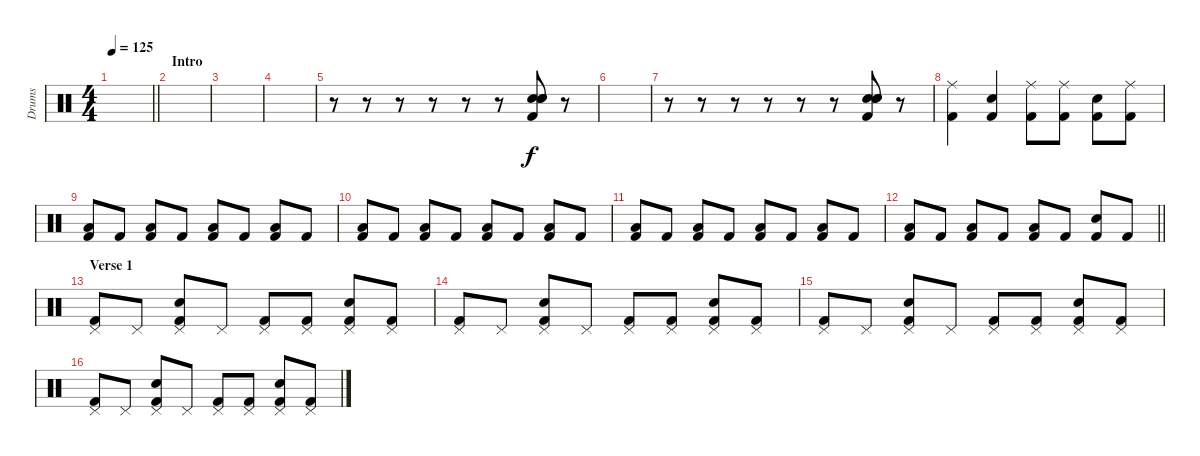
\track ("Drums" "Drums") {instrument percussion}
\staff {score}
\articulation defaults
\ts (4 4)
\tempo 125
\clef neutral
\barLineRight lightlight
\ks c
|
\section ("" "Intro")
|
|
|
r.8 r.8 r.8 r.8 r.8 r.8 ("Kick (hit) 2" "Electric Snare (hit)" "Electric Snare (hit)" "Snare (hit) 2").8 r.8 |
|
r.8 r.8 r.8 r.8 r.8 r.8 ("Kick (hit) 2" "Electric Snare (hit)" "Electric Snare (hit)" "Snare (hit) 2").8 r.8 |
("Ride (middle)" "Kick (hit) 2").4 ("Snare (hit) 2" "Kick (hit) 2").4 ("Ride (middle)" "Kick (hit) 2").8 ("Ride (middle)" "Kick (hit) 2").8 ("Snare (hit) 2" "Kick (hit) 2").8 ("Ride (middle)" "Kick (hit) 2").8 |
("Low Tom (hit)" "Kick (hit) 2").8 "Kick (hit) 2".8 ("Low Tom (hit)" "Kick (hit) 2").8 "Kick (hit) 2".8 ("Low Tom (hit)" "Kick (hit) 2").8 "Kick (hit) 2".8 ("Low Tom (hit)" "Kick (hit) 2").8 "Kick (hit) 2".8 |
("Low Tom (hit)" "Kick (hit) 2").8 "Kick (hit) 2".8 ("Low Tom (hit)" "Kick (hit) 2").8 "Kick (hit) 2".8 ("Low Tom (hit)" "Kick (hit) 2").8 "Kick (hit) 2".8 ("Low Tom (hit)" "Kick (hit) 2").8 "Kick (hit) 2".8 |
("Low Tom (hit)" "Kick (hit) 2").8 "Kick (hit) 2".8 ("Low Tom (hit)" "Kick (hit) 2").8 "Kick (hit) 2".8 ("Low Tom (hit)" "Kick (hit) 2").8 "Kick (hit) 2".8 ("Low Tom (hit)" "Kick (hit) 2").8 "Kick (hit) 2".8 |
\barLineRight lightlight
("Low Tom (hit)" "Kick (hit) 2").8 "Kick (hit) 2".8 ("Low Tom (hit)" "Kick (hit) 2").8 "Kick (hit) 2".8 ("Low Tom (hit)" "Kick (hit) 2").8 "Kick (hit) 2".8 ("Snare (hit) 2" "Kick (hit) 2").8 "Kick (hit) 2".8 |
\section ("" "Verse 1")
("Pedal Hi-Hat (hit)" "Kick (hit) 2").8 "Pedal Hi-Hat (hit)".8 ("Pedal Hi-Hat (hit)" "Snare (hit) 2" "Kick (hit) 2").8 "Pedal Hi-Hat (hit)".8 ("Pedal Hi-Hat (hit)" "Kick (hit) 2").8 ("Pedal Hi-Hat (hit)" "Kick (hit) 2").8 ("Pedal Hi-Hat (hit)" "Snare (hit) 2" "Kick (hit) 2").8 ("Pedal Hi-Hat (hit)" "Kick (hit) 2").8 |
("Pedal Hi-Hat (hit)" "Kick (hit) 2").8 "Pedal Hi-Hat (hit)".8 ("Pedal Hi-Hat (hit)" "Snare (hit) 2" "Kick (hit) 2").8 "Pedal Hi-Hat (hit)".8 ("Pedal Hi-Hat (hit)" "Kick (hit) 2").8 ("Pedal Hi-Hat (hit)" "Kick (hit) 2").8 ("Pedal Hi-Hat (hit)" "Snare (hit) 2" "Kick (hit) 2").8 ("Pedal Hi-Hat (hit)" "Kick (hit) 2").8 |
("Pedal Hi-Hat (hit)" "Kick (hit) 2").8 "Pedal Hi-Hat (hit)".8 ("Pedal Hi-Hat (hit)" "Snare (hit) 2" "Kick (hit) 2").8 "Pedal Hi-Hat (hit)".8 ("Pedal Hi-Hat (hit)" "Kick (hit) 2").8 ("Pedal Hi-Hat (hit)" "Kick (hit) 2").8 ("Pedal Hi-Hat (hit)" "Snare (hit) 2" "Kick (hit) 2").8 ("Pedal Hi-Hat (hit)" "Kick (hit) 2").8 |
("Pedal Hi-Hat (hit)" "Kick (hit) 2").8 "Pedal Hi-Hat (hit)".8 ("Pedal Hi-Hat (hit)" "Snare (hit) 2" "Kick (hit) 2").8 "Pedal Hi-Hat (hit)".8 ("Pedal Hi-Hat (hit)" "Kick (hit) 2").8 ("Pedal Hi-Hat (hit)" "Kick (hit) 2").8 ("Pedal Hi-Hat (hit)" "Snare (hit) 2" "Kick (hit) 2").8 ("Pedal Hi-Hat (hit)" "Kick (hit) 2").8
